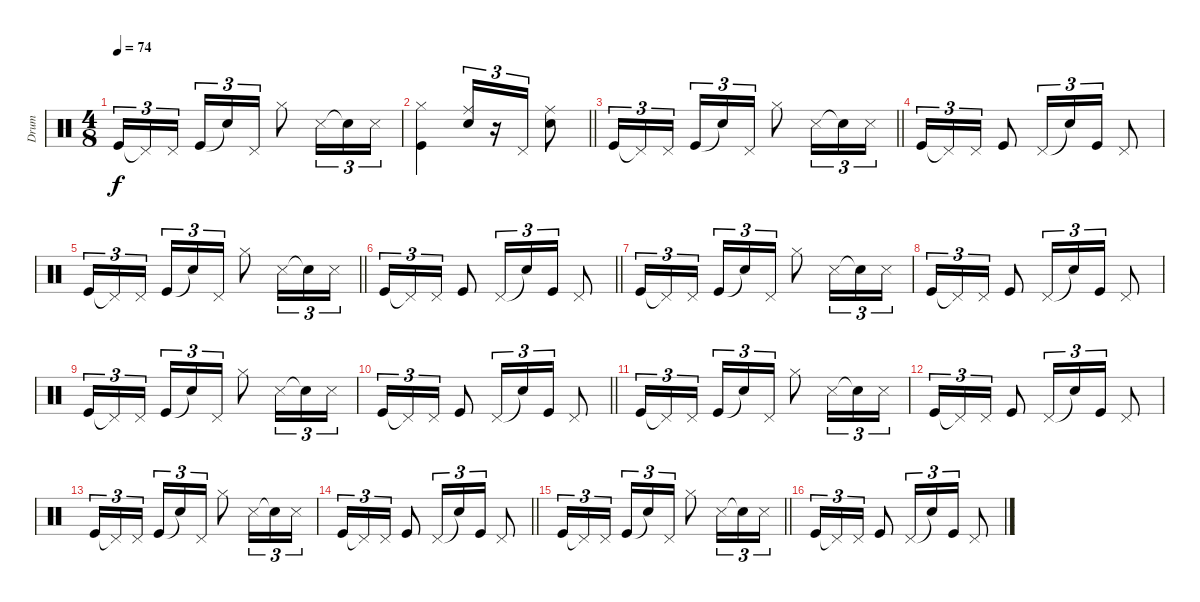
\track ("Drum" "Drum") {instrument percussion}
\staff {score}
\articulation defaults
\ts (4 8)
\tempo 74
\clef neutral
\ks c "Kick (hit)".16{tu (3 2) dy f} "Pedal Hi-Hat (hit)"{t}.16{tu (3 2)} "Pedal Hi-Hat (hit)".16{tu (3 2)} "Kick (hit)".16{tu (3 2)} "Snare (hit)"{t}.16{tu (3 2)} "Pedal Hi-Hat (hit)".16{tu (3 2)} "Hi-Hat (closed)".8 "Snare (side stick) 3".16{tu (3 2)} "Snare (hit)"{t}.16{tu (3 2)} "Snare (side stick) 3".16{tu (3 2)}
|
\barLineRight lightlight
("Hi-Hat (closed)" "Kick (hit)").4 ("Ride (middle)" "Snare (hit) 2").16{tu (3 2)} r.16{tu (3 2)} "Pedal Hi-Hat (hit)".16{tu (3 2)} ("Ride (middle)" "Snare (hit) 2").8 |
\section ("" "")
\barLineRight lightlight "Kick (hit)".16{tu (3 2)} "Pedal Hi-Hat (hit)"{t}.16{tu (3 2)} "Pedal Hi-Hat (hit)".16{tu (3 2)} "Kick (hit)".16{tu (3 2)} "Snare (hit)"{t}.16{tu (3 2)} "Pedal Hi-Hat (hit)".16{tu (3 2)} "Hi-Hat (closed)".8 "Snare (side stick) 3".16{tu (3 2)} "Snare (hit)"{t}.16{tu (3 2)} "Snare (side stick) 3".16{tu (3 2)}
|
\section ("" "")
"Kick (hit)".16{tu (3 2)} "Pedal Hi-Hat (hit)"{t}.16{tu (3 2)} "Pedal Hi-Hat (hit)".16{tu (3 2)} "Kick (hit)".8 "Pedal Hi-Hat (hit)".16{tu (3 2)} "Snare (hit)"{t}.16{tu (3 2)} "Kick (hit)".16{tu (3 2)} "Pedal Hi-Hat (hit)".8 |
\barLineRight lightlight "Kick (hit)".16{tu (3 2)} "Pedal Hi-Hat (hit)"{t}.16{tu (3 2)} "Pedal Hi-Hat (hit)".16{tu (3 2)} "Kick (hit)".16{tu (3 2)} "Snare (hit)"{t}.16{tu (3 2)} "Pedal Hi-Hat (hit)".16{tu (3 2)} "Hi-Hat (closed)".8 "Snare (side stick) 3".16{tu (3 2)} "Snare (hit)"{t}.16{tu (3 2)} "Snare (side stick) 3".16{tu (3 2)}
|
\section ("" "")
\barLineRight lightlight "Kick (hit)".16{tu (3 2)} "Pedal Hi-Hat (hit)"{t}.16{tu (3 2)} "Pedal Hi-Hat (hit)".16{tu (3 2)} "Kick (hit)".8 "Pedal Hi-Hat (hit)".16{tu (3 2)} "Snare (hit)"{t}.16{tu (3 2)} "Kick (hit)".16{tu (3 2)} "Pedal Hi-Hat (hit)".8
|
\section ("" "")
"Kick (hit)".16{tu (3 2)} "Pedal Hi-Hat (hit)"{t}.16{tu (3 2)} "Pedal Hi-Hat (hit)".16{tu (3 2)} "Kick (hit)".16{tu (3 2)} "Snare (hit)"{t}.16{tu (3 2)} "Pedal Hi-Hat (hit)".16{tu (3 2)} "Hi-Hat (closed)".8 "Snare (side stick) 3".16{tu (3 2)} "Snare (hit)"{t}.16{tu (3 2)} "Snare (side stick) 3".16{tu (3 2)} |
"Kick (hit)".16{tu (3 2)} "Pedal Hi-Hat (hit)"{t}.16{tu (3 2)} "Pedal Hi-Hat (hit)".16{tu (3 2)} "Kick (hit)".8 "Pedal Hi-Hat (hit)".16{tu (3 2)} "Snare (hit)"{t}.16{tu (3 2)} "Kick (hit)".16{tu (3 2)} "Pedal Hi-Hat (hit)".8 |
"Kick (hit)".16{tu (3 2)} "Pedal Hi-Hat (hit)"{t}.16{tu (3 2)} "Pedal Hi-Hat (hit)".16{tu (3 2)} "Kick (hit)".16{tu (3 2)} "Snare (hit)"{t}.16{tu (3 2)} "Pedal Hi-Hat (hit)".16{tu (3 2)} "Hi-Hat (closed)".8 "Snare (side stick) 3".16{tu (3 2)} "Snare (hit)"{t}.16{tu (3 2)} "Snare (side stick) 3".16{tu (3 2)} |
\barLineRight lightlight "Kick (hit)".16{tu (3 2)} "Pedal Hi-Hat (hit)"{t}.16{tu (3 2)} "Pedal Hi-Hat (hit)".16{tu (3 2)} "Kick (hit)".8 "Pedal Hi-Hat (hit)".16{tu (3 2)} "Snare (hit)"{t}.16{tu (3 2)} "Kick (hit)".16{tu (3 2)} "Pedal Hi-Hat (hit)".8
|
\section ("" "")
"Kick (hit)".16{tu (3 2)} "Pedal Hi-Hat (hit)"{t}.16{tu (3 2)} "Pedal Hi-Hat (hit)".16{tu (3 2)} "Kick (hit)".16{tu (3 2)} "Snare (hit)"{t}.16{tu (3 2)} "Pedal Hi-Hat (hit)".16{tu (3 2)} "Hi-Hat (closed)".8 "Snare (side stick) 3".16{tu (3 2)} "Snare (hit)"{t}.16{tu (3 2)} "Snare (side stick) 3".16{tu (3 2)} |
"Kick (hit)".16{tu (3 2)} "Pedal Hi-Hat (hit)"{t}.16{tu (3 2)} "Pedal Hi-Hat (hit)".16{tu (3 2)} "Kick (hit)".8 "Pedal Hi-Hat (hit)".16{tu (3 2)} "Snare (hit)"{t}.16{tu (3 2)} "Kick (hit)".16{tu (3 2)} "Pedal Hi-Hat (hit)".8 |
"Kick (hit)".16{tu (3 2)} "Pedal Hi-Hat (hit)"{t}.16{tu (3 2)} "Pedal Hi-Hat (hit)".16{tu (3 2)} "Kick (hit)".16{tu (3 2)} "Snare (hit)"{t}.16{tu (3 2)} "Pedal Hi-Hat (hit)".16{tu (3 2)} "Hi-Hat (closed)".8 "Snare (side stick) 3".16{tu (3 2)} "Snare (hit)"{t}.16{tu (3 2)} "Snare (side stick) 3".16{tu (3 2)} |
\barLineRight lightlight "Kick (hit)".16{tu (3 2)} "Pedal Hi-Hat (hit)"{t}.16{tu (3 2)} "Pedal Hi-Hat (hit)".16{tu (3 2)} "Kick (hit)".8 "Pedal Hi-Hat (hit)".16{tu (3 2)} "Snare (hit)"{t}.16{tu (3 2)} "Kick (hit)".16{tu (3 2)} "Pedal Hi-Hat (hit)".8
|
\section ("" "")
\barLineRight lightlight "Kick (hit)".16{tu (3 2)} "Pedal Hi-Hat (hit)"{t}.16{tu (3 2)} "Pedal Hi-Hat (hit)".16{tu (3 2)} "Kick (hit)".16{tu (3 2)} "Snare (hit)"{t}.16{tu (3 2)} "Pedal Hi-Hat (hit)".16{tu (3 2)} "Hi-Hat (closed)".8 "Snare (side stick) 3".16{tu (3 2)} "Snare (hit)"{t}.16{tu (3 2)} "Snare (side stick) 3".16{tu (3 2)}
|
\section ("" "")
"Kick (hit)".16{tu (3 2)} "Pedal Hi-Hat (hit)"{t}.16{tu (3 2)} "Pedal Hi-Hat (hit)".16{tu (3 2)} "Kick (hit)".8 "Pedal Hi-Hat (hit)".16{tu (3 2)} "Snare (hit)"{t}.16{tu (3 2)} "Kick (hit)".16{tu (3 2)} "Pedal Hi-Hat (hit)".8
